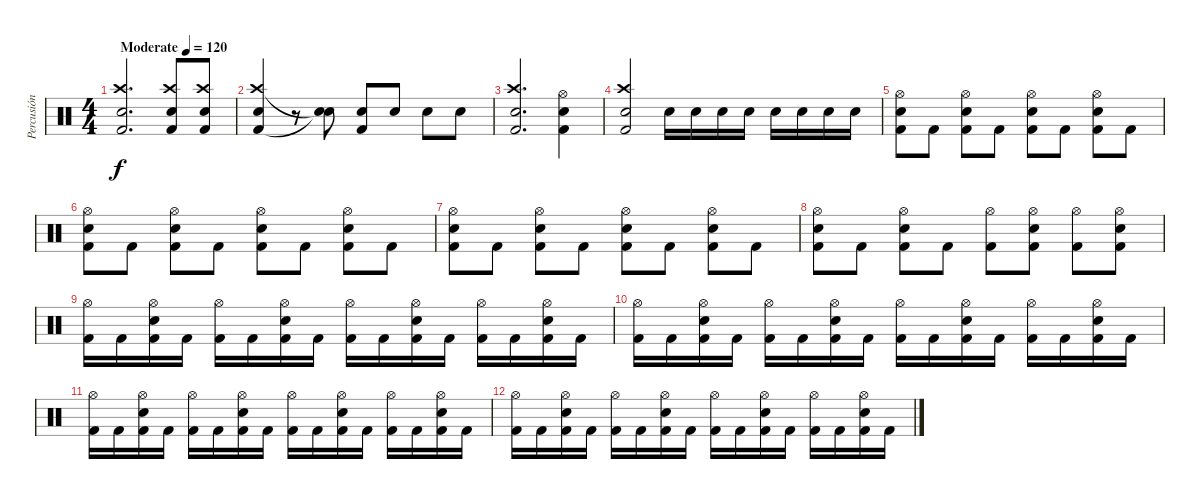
\track ("Percusión" "Percusión") {instrument percussion}
\staff {score}
\articulation defaults
\ts (4 4)
\tempo (120 "Moderate")
\clef neutral
\ks c
("Kick (hit) 2" "Crash high (hit)" "Electric Snare (hit)").2{d dy f} ("Crash high (hit)" "Kick (hit) 2" "Electric Snare (hit)").8 ("Crash high (hit)" "Kick (hit) 2" "Electric Snare (hit)").8 |
("Crash high (hit)" "Kick (hit) 2" "Electric Snare (hit)").4 r.8 ("Snare (hit)"{t} "Snare (hit)"{t}).8 ("Kick (hit) 2" "Electric Snare (hit)").8 "Electric Snare (hit)".8 "Electric Snare (hit)".8 "Electric Snare (hit)".8 |
("Crash high (hit)" "Kick (hit) 2" "Electric Snare (hit)").2{d} ("Hi-Hat (open)" "Kick (hit) 2" "Electric Snare (hit)").4 |
("Crash high (hit)" "Kick (hit) 2" "Electric Snare (hit)").2 "Electric Snare (hit)".16 "Electric Snare (hit)".16 "Electric Snare (hit)".16 "Electric Snare (hit)".16 "Electric Snare (hit)".16 "Electric Snare (hit)".16 "Electric Snare (hit)".16 "Electric Snare (hit)".16 |
("Hi-Hat (open)" "Kick (hit) 2" "Electric Snare (hit)").8 "Kick (hit) 2".8 ("Hi-Hat (open)" "Kick (hit) 2" "Electric Snare (hit)").8 "Kick (hit) 2".8 ("Hi-Hat (open)" "Kick (hit) 2" "Electric Snare (hit)").8 "Kick (hit) 2".8 ("Hi-Hat (open)" "Kick (hit) 2" "Electric Snare (hit)").8 "Kick (hit) 2".8 |
("Hi-Hat (open)" "Kick (hit) 2" "Electric Snare (hit)").8 "Kick (hit) 2".8 ("Hi-Hat (open)" "Kick (hit) 2" "Electric Snare (hit)").8 "Kick (hit) 2".8 ("Hi-Hat (open)" "Kick (hit) 2" "Electric Snare (hit)").8 "Kick (hit) 2".8 ("Hi-Hat (open)" "Kick (hit) 2" "Electric Snare (hit)").8 "Kick (hit) 2".8 |
("Hi-Hat (open)" "Kick (hit) 2" "Electric Snare (hit)").8 "Kick (hit) 2".8 ("Hi-Hat (open)" "Kick (hit) 2" "Electric Snare (hit)").8 "Kick (hit) 2".8 ("Hi-Hat (open)" "Kick (hit) 2" "Electric Snare (hit)").8 "Kick (hit) 2".8 ("Hi-Hat (open)" "Kick (hit) 2" "Electric Snare (hit)").8 "Kick (hit) 2".8 |
("Hi-Hat (open)" "Kick (hit) 2" "Electric Snare (hit)").8 "Kick (hit) 2".8 ("Hi-Hat (open)" "Kick (hit) 2" "Electric Snare (hit)").8 "Kick (hit) 2".8 ("Hi-Hat (open)" "Kick (hit) 2").8 ("Hi-Hat (open)" "Kick (hit) 2" "Electric Snare (hit)").8 ("Hi-Hat (open)" "Kick (hit) 2").8 ("Hi-Hat (open)" "Kick (hit) 2" "Electric Snare (hit)").8 |
("Hi-Hat (open)" "Kick (hit) 2").16 "Kick (hit) 2".16 ("Hi-Hat (open)" "Kick (hit) 2" "Electric Snare (hit)").16 "Kick (hit) 2".16 ("Hi-Hat (open)" "Kick (hit) 2").16 "Kick (hit) 2".16 ("Hi-Hat (open)" "Kick (hit) 2" "Electric Snare (hit)").16 "Kick (hit) 2".16 ("Hi-Hat (open)" "Kick (hit) 2").16 "Kick (hit) 2".16 ("Hi-Hat (open)" "Kick (hit) 2" "Electric Snare (hit)").16 "Kick (hit) 2".16 ("Hi-Hat (open)" "Kick (hit) 2").16 "Kick (hit) 2".16 ("Hi-Hat (open)" "Kick (hit) 2" "Electric Snare (hit)").16 "Kick (hit) 2".16 |
("Hi-Hat (open)" "Kick (hit) 2").16 "Kick (hit) 2".16 ("Hi-Hat (open)" "Kick (hit) 2" "Electric Snare (hit)").16 "Kick (hit) 2".16 ("Hi-Hat (open)" "Kick (hit) 2").16 "Kick (hit) 2".16 ("Hi-Hat (open)" "Kick (hit) 2" "Electric Snare (hit)").16 "Kick (hit) 2".16 ("Hi-Hat (open)" "Kick (hit) 2").16 "Kick (hit) 2".16 ("Hi-Hat (open)" "Kick (hit) 2" "Electric Snare (hit)").16 "Kick (hit) 2".16 ("Hi-Hat (open)" "Kick (hit) 2").16 "Kick (hit) 2".16 ("Hi-Hat (open)" "Kick (hit) 2" "Electric Snare (hit)").16 "Kick (hit) 2".16 |
("Hi-Hat (open)" "Kick (hit) 2").16 "Kick (hit) 2".16 ("Hi-Hat (open)" "Kick (hit) 2" "Electric Snare (hit)").16 "Kick (hit) 2".16 ("Hi-Hat (open)" "Kick (hit) 2").16 "Kick (hit) 2".16 ("Hi-Hat (open)" "Kick (hit) 2" "Electric Snare (hit)").16 "Kick (hit) 2".16 ("Hi-Hat (open)" "Kick (hit) 2").16 "Kick (hit) 2".16 ("Hi-Hat (open)" "Kick (hit) 2" "Electric Snare (hit)").16 "Kick (hit) 2".16 ("Hi-Hat (open)" "Kick (hit) 2").16 "Kick (hit) 2".16 ("Hi-Hat (open)" "Kick (hit) 2" "Electric Snare (hit)").16 "Kick (hit) 2".16 |
("Hi-Hat (open)" "Kick (hit) 2").16 "Kick (hit) 2".16 ("Hi-Hat (open)" "Kick (hit) 2" "Electric Snare (hit)").16 "Kick (hit) 2".16 ("Hi-Hat (open)" "Kick (hit) 2").16 "Kick (hit) 2".16 ("Hi-Hat (open)" "Kick (hit) 2" "Electric Snare (hit)").16 "Kick (hit) 2".16 ("Hi-Hat (open)" "Kick (hit) 2").16 "Kick (hit) 2".16 ("Hi-Hat (open)" "Kick (hit) 2" "Electric Snare (hit)").16 "Kick (hit) 2".16 ("Hi-Hat (open)" "Kick (hit) 2").16 "Kick (hit) 2".16 ("Hi-Hat (open)" "Kick (hit) 2" "Electric Snare (hit)").16 "Kick (hit) 2".16
